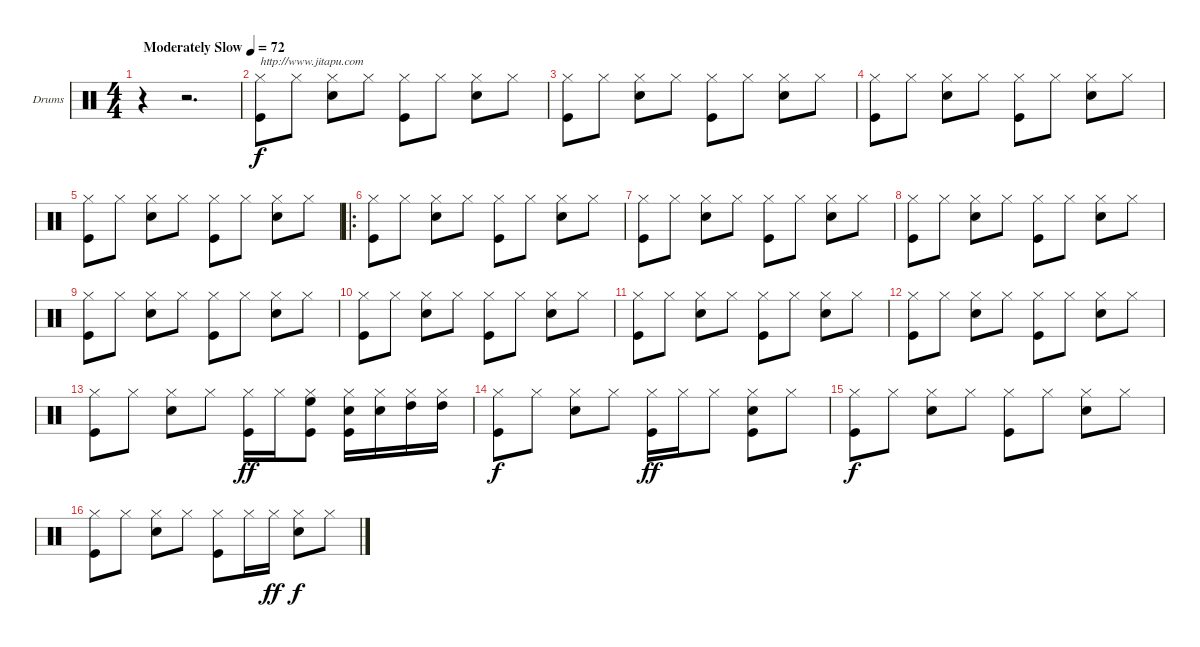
\bracketExtendMode groupsimilarinstruments
\firstSystemTrackNameOrientation horizontal
\otherSystemsTrackNameOrientation horizontal
\track ("Drumkit" "Drums") {instrument percussion}
\staff {score}
\articulation defaults
\ts (4 4)
\beaming (8 2 2 2 2)
\tempo (72 "Moderately Slow")
\clef neutral
\ks c
r.4{dy f} r.2{d} |
("Hi-Hat (closed)" "Kick (hit)").8{txt "http://www.jitapu.com"} "Hi-Hat (closed)".8 ("Hi-Hat (closed)" "Snare (hit) 2").8 "Hi-Hat (closed)".8 ("Hi-Hat (closed)" "Kick (hit)").8 "Hi-Hat (closed)".8 ("Hi-Hat (closed)" "Snare (hit) 2").8 "Hi-Hat (closed)".8 |
("Hi-Hat (closed)" "Kick (hit)").8 "Hi-Hat (closed)".8 ("Hi-Hat (closed)" "Snare (hit) 2").8 "Hi-Hat (closed)".8 ("Hi-Hat (closed)" "Kick (hit)").8 "Hi-Hat (closed)".8 ("Hi-Hat (closed)" "Snare (hit) 2").8 "Hi-Hat (closed)".8 |
("Hi-Hat (closed)" "Kick (hit)").8 "Hi-Hat (closed)".8 ("Hi-Hat (closed)" "Snare (hit) 2").8 "Hi-Hat (closed)".8 ("Hi-Hat (closed)" "Kick (hit)").8 "Hi-Hat (closed)".8 ("Hi-Hat (closed)" "Snare (hit) 2").8 "Hi-Hat (closed)".8 |
("Hi-Hat (closed)" "Kick (hit)").8 "Hi-Hat (closed)".8 ("Hi-Hat (closed)" "Snare (hit) 2").8 "Hi-Hat (closed)".8 ("Hi-Hat (closed)" "Kick (hit)").8 "Hi-Hat (closed)".8 ("Hi-Hat (closed)" "Snare (hit) 2").8 "Hi-Hat (closed)".8 |
\ro
("Hi-Hat (closed)" "Kick (hit)").8 "Hi-Hat (closed)".8 ("Hi-Hat (closed)" "Snare (hit) 2").8 "Hi-Hat (closed)".8 ("Hi-Hat (closed)" "Kick (hit)").8 "Hi-Hat (closed)".8 ("Hi-Hat (closed)" "Snare (hit) 2").8 "Hi-Hat (closed)".8 |
("Hi-Hat (closed)" "Kick (hit)").8 "Hi-Hat (closed)".8 ("Hi-Hat (closed)" "Snare (hit) 2").8 "Hi-Hat (closed)".8 ("Hi-Hat (closed)" "Kick (hit)").8 "Hi-Hat (closed)".8 ("Hi-Hat (closed)" "Snare (hit) 2").8 "Hi-Hat (closed)".8 |
("Hi-Hat (closed)" "Kick (hit)").8 "Hi-Hat (closed)".8 ("Hi-Hat (closed)" "Snare (hit) 2").8 "Hi-Hat (closed)".8 ("Hi-Hat (closed)" "Kick (hit)").8 "Hi-Hat (closed)".8 ("Hi-Hat (closed)" "Snare (hit) 2").8 "Hi-Hat (closed)".8 |
("Hi-Hat (closed)" "Kick (hit)").8 "Hi-Hat (closed)".8 ("Hi-Hat (closed)" "Snare (hit) 2").8 "Hi-Hat (closed)".8 ("Hi-Hat (closed)" "Kick (hit)").8 "Hi-Hat (closed)".8 ("Hi-Hat (closed)" "Snare (hit) 2").8 "Hi-Hat (closed)".8 |
("Hi-Hat (closed)" "Kick (hit)").8 "Hi-Hat (closed)".8 ("Hi-Hat (closed)" "Snare (hit) 2").8 "Hi-Hat (closed)".8 ("Hi-Hat (closed)" "Kick (hit)").8 "Hi-Hat (closed)".8 ("Hi-Hat (closed)" "Snare (hit) 2").8 "Hi-Hat (closed)".8 |
("Hi-Hat (closed)" "Kick (hit)").8 "Hi-Hat (closed)".8 ("Hi-Hat (closed)" "Snare (hit) 2").8 "Hi-Hat (closed)".8 ("Hi-Hat (closed)" "Kick (hit)").8 "Hi-Hat (closed)".8 ("Hi-Hat (closed)" "Snare (hit) 2").8 "Hi-Hat (closed)".8 |
("Hi-Hat (closed)" "Kick (hit)").8 "Hi-Hat (closed)".8 ("Hi-Hat (closed)" "Snare (hit) 2").8 "Hi-Hat (closed)".8 ("Hi-Hat (closed)" "Kick (hit)").8 "Hi-Hat (closed)".8 ("Hi-Hat (closed)" "Snare (hit) 2").8 "Hi-Hat (closed)".8 |
("Hi-Hat (closed)" "Kick (hit)").8 "Hi-Hat (closed)".8 ("Hi-Hat (closed)" "Snare (hit) 2").8 "Hi-Hat (closed)".8 ("Hi-Hat (closed)" "Kick (hit)").16{dy ff} "Hi-Hat (closed)".16 ("Hi-Hat (closed)" "High Floor Tom (hit)" "Kick (hit)").8 ("Hi-Hat (closed)" "Snare (hit) 2" "Kick (hit)").16 ("Hi-Hat (closed)" "Snare (hit) 2").16 ("Hi-Hat (closed)" "High Tom (hit)").16 ("Hi-Hat (closed)" "High Tom (hit)").16 |
("Hi-Hat (closed)" "Kick (hit)").8{dy f} "Hi-Hat (closed)".8 ("Hi-Hat (closed)" "Snare (hit) 2").8 "Hi-Hat (closed)".8 ("Hi-Hat (closed)" "Kick (hit)").16{dy ff} "Hi-Hat (closed)".16 "Hi-Hat (closed)".8 ("Hi-Hat (closed)" "Snare (hit) 2" "Kick (hit)").8 "Hi-Hat (closed)".8 |
("Hi-Hat (closed)" "Kick (hit)").8{dy f} "Hi-Hat (closed)".8 ("Hi-Hat (closed)" "Snare (hit) 2").8 "Hi-Hat (closed)".8 ("Hi-Hat (closed)" "Kick (hit)").8 "Hi-Hat (closed)".8 ("Hi-Hat (closed)" "Snare (hit) 2").8 "Hi-Hat (closed)".8 |
("Hi-Hat (closed)" "Kick (hit)").8 "Hi-Hat (closed)".8 ("Hi-Hat (closed)" "Snare (hit) 2").8 "Hi-Hat (closed)".8 ("Hi-Hat (closed)" "Kick (hit)").8 "Hi-Hat (closed)".16 "Hi-Hat (closed)".16{dy ff} ("Hi-Hat (closed)" "Snare (hit) 2").8{dy f} "Hi-Hat (closed)".8
